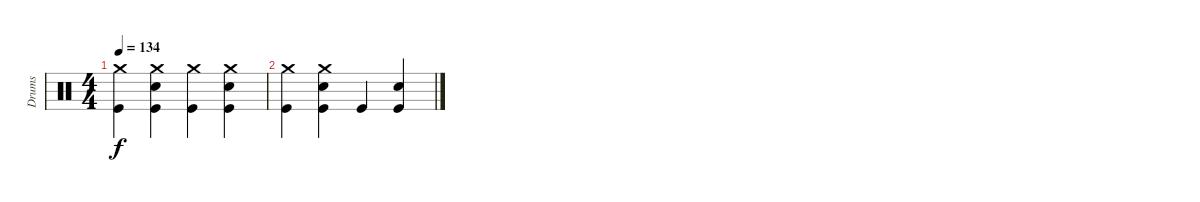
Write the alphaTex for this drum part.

\track ("Drums" "Drums") {instrument percussion}
\staff {score}
\articulation defaults
\ts (4 4)
\tempo 134
\clef neutral
\ks c
("Crash medium (hit)" "Kick (hit)").4{dy f} ("Crash medium (hit)" "Kick (hit)" "Snare (hit) 2").4 ("Crash medium (hit)" "Kick (hit)").4 ("Crash medium (hit)" "Kick (hit)" "Snare (hit) 2").4 |
("Crash medium (hit)" "Kick (hit)").4 ("Crash medium (hit)" "Kick (hit)" "Snare (hit) 2").4 "Kick (hit)".4 ("Kick (hit)" "Snare (hit) 2").4
